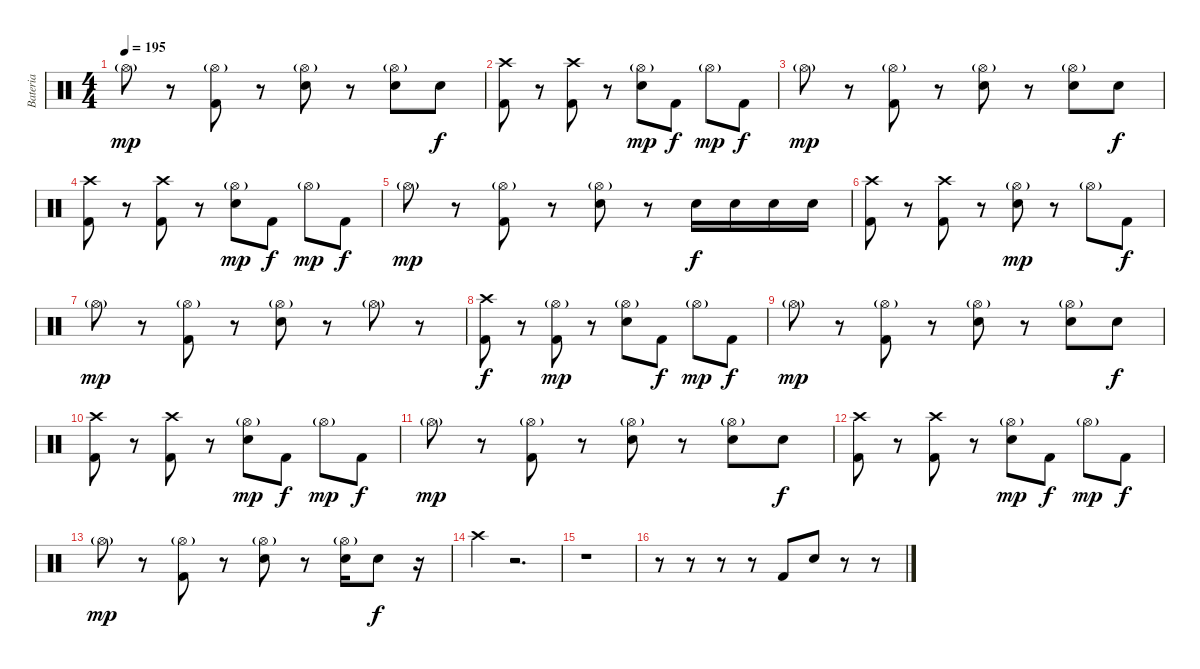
\track ("Bateria" "Bateria") {instrument percussion}
\staff {score}
\articulation defaults
\ts (4 4)
\tempo 195
\clef neutral
\ks c "Hi-Hat (open)"{g}.8{dy mp}
r.8 ("Hi-Hat (open)"{g} "Kick (hit) 2").8 r.8 ("Hi-Hat (open)"{g} "Snare (hit) 2").8 r.8 ("Hi-Hat (open)"{g} "Snare (hit) 2").8 "Snare (hit) 2".8{dy f} |
("Crash high (hit)" "Kick (hit) 2").8 r.8 ("Crash high (hit)" "Kick (hit) 2").8 r.8 ("Hi-Hat (open)"{g} "Snare (hit) 2").8{dy mp} "Kick (hit) 2".8{dy f} "Hi-Hat (open)"{g}.8{dy mp} "Kick (hit) 2".8{dy f} |
"Hi-Hat (open)"{g}.8{dy mp} r.8 ("Hi-Hat (open)"{g} "Kick (hit) 2").8 r.8 ("Hi-Hat (open)"{g} "Snare (hit) 2").8 r.8 ("Hi-Hat (open)"{g} "Snare (hit) 2").8 "Snare (hit) 2".8{dy f} |
("Crash high (hit)" "Kick (hit) 2").8 r.8 ("Crash high (hit)" "Kick (hit) 2").8 r.8 ("Hi-Hat (open)"{g} "Snare (hit) 2").8{dy mp} "Kick (hit) 2".8{dy f} "Hi-Hat (open)"{g}.8{dy mp} "Kick (hit) 2".8{dy f} |
"Hi-Hat (open)"{g}.8{dy mp} r.8 ("Hi-Hat (open)"{g} "Kick (hit) 2").8 r.8 ("Hi-Hat (open)"{g} "Snare (hit) 2").8 r.8 "Snare (hit) 2".16{dy f} "Snare (hit) 2".16 "Snare (hit) 2".16 "Snare (hit) 2".16 |
("Crash high (hit)" "Kick (hit) 2").8 r.8 ("Crash high (hit)" "Kick (hit) 2").8 r.8 ("Hi-Hat (open)"{g} "Snare (hit) 2").8{dy mp} r.8 "Hi-Hat (open)"{g}.8 "Kick (hit) 2".8{dy f} |
"Hi-Hat (open)"{g}.8{dy mp} r.8 ("Hi-Hat (open)"{g} "Kick (hit) 2").8 r.8 ("Hi-Hat (open)"{g} "Snare (hit) 2").8 r.8 "Hi-Hat (open)"{g}.8 r.8 |
("Crash high (hit)" "Kick (hit) 2").8{dy f} r.8 ("Hi-Hat (open)"{g} "Kick (hit) 2").8{dy mp} r.8 ("Hi-Hat (open)"{g} "Snare (hit) 2").8 "Kick (hit) 2".8{dy f} "Hi-Hat (open)"{g}.8{dy mp} "Kick (hit) 2".8{dy f} |
"Hi-Hat (open)"{g}.8{dy mp} r.8 ("Hi-Hat (open)"{g} "Kick (hit) 2").8 r.8 ("Hi-Hat (open)"{g} "Snare (hit) 2").8 r.8 ("Hi-Hat (open)"{g} "Snare (hit) 2").8 "Snare (hit) 2".8{dy f} |
("Crash high (hit)" "Kick (hit) 2").8 r.8 ("Crash high (hit)" "Kick (hit) 2").8 r.8 ("Hi-Hat (open)"{g} "Snare (hit) 2").8{dy mp} "Kick (hit) 2".8{dy f} "Hi-Hat (open)"{g}.8{dy mp} "Kick (hit) 2".8{dy f} |
"Hi-Hat (open)"{g}.8{dy mp} r.8 ("Hi-Hat (open)"{g} "Kick (hit) 2").8 r.8 ("Hi-Hat (open)"{g} "Snare (hit) 2").8 r.8 ("Hi-Hat (open)"{g} "Snare (hit) 2").8 "Snare (hit) 2".8{dy f} |
("Crash high (hit)" "Kick (hit) 2").8 r.8 ("Crash high (hit)" "Kick (hit) 2").8 r.8 ("Hi-Hat (open)"{g} "Snare (hit) 2").8{dy mp} "Kick (hit) 2".8{dy f} "Hi-Hat (open)"{g}.8{dy mp} "Kick (hit) 2".8{dy f} |
"Hi-Hat (open)"{g}.8{dy mp} r.8 ("Hi-Hat (open)"{g} "Kick (hit) 2").8 r.8 ("Hi-Hat (open)"{g} "Snare (hit) 2").8 r.8 ("Hi-Hat (open)"{g} "Snare (hit) 2").16 "Snare (hit) 2".8{dy f} r.16 |
"Crash high (hit)".4 r.2{d} |
r.1 |
r.8 r.8 r.8 r.8 "Kick (hit) 2".8 "Snare (hit) 2".8 r.8 r.8
